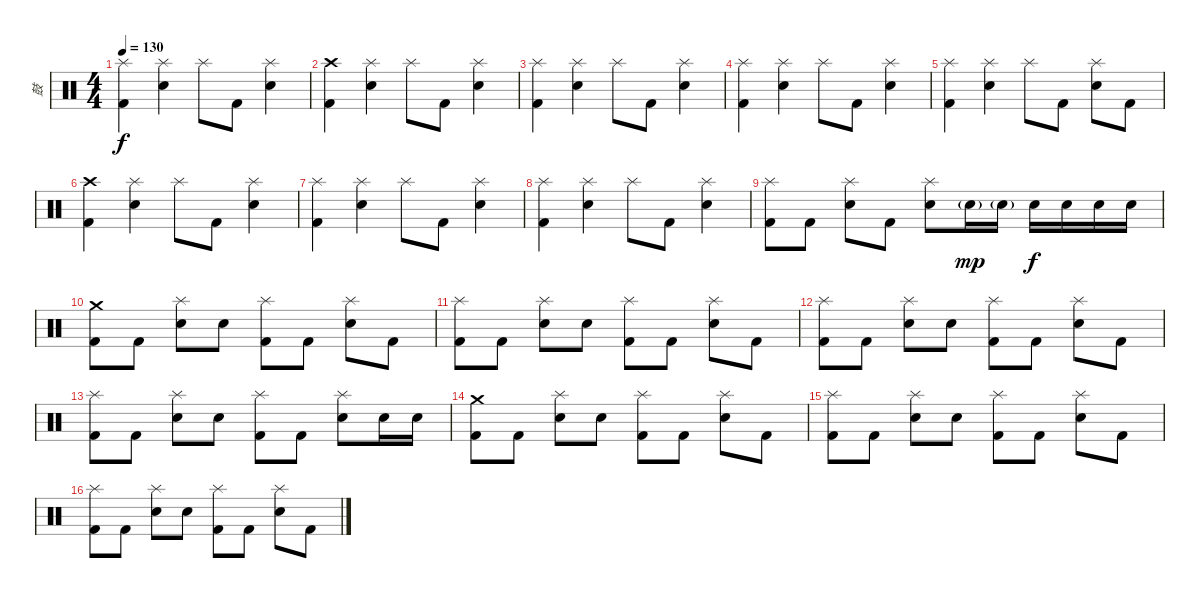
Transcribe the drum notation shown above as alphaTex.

\track ("鼓" "鼓") {instrument percussion}
\staff {score}
\articulation defaults
\ts (4 4)
\tempo 130
\clef neutral
\ks c
("Splash (hit)" "Kick (hit) 2").4{dy f} ("Splash (hit)" "Electric Snare (hit)").4 "Splash (hit)".8 "Kick (hit) 2".8 ("Splash (hit)" "Electric Snare (hit)").4 |
("Crash high (hit)" "Kick (hit) 2").4 ("Splash (hit)" "Electric Snare (hit)").4 "Splash (hit)".8 "Kick (hit) 2".8 ("Splash (hit)" "Electric Snare (hit)").4 |
("Splash (hit)" "Kick (hit) 2").4 ("Splash (hit)" "Electric Snare (hit)").4 "Splash (hit)".8 "Kick (hit) 2".8 ("Splash (hit)" "Electric Snare (hit)").4 |
("Splash (hit)" "Kick (hit) 2").4 ("Splash (hit)" "Electric Snare (hit)").4 "Splash (hit)".8 "Kick (hit) 2".8 ("Splash (hit)" "Electric Snare (hit)").4 |
("Splash (hit)" "Kick (hit) 2").4 ("Splash (hit)" "Electric Snare (hit)").4 "Splash (hit)".8 "Kick (hit) 2".8 ("Splash (hit)" "Electric Snare (hit)").8 "Kick (hit) 2".8 |
("Crash high (hit)" "Kick (hit) 2").4 ("Splash (hit)" "Electric Snare (hit)").4 "Splash (hit)".8 "Kick (hit) 2".8 ("Splash (hit)" "Electric Snare (hit)").4 |
("Splash (hit)" "Kick (hit) 2").4 ("Splash (hit)" "Electric Snare (hit)").4 "Splash (hit)".8 "Kick (hit) 2".8 ("Splash (hit)" "Electric Snare (hit)").4 |
("Splash (hit)" "Kick (hit) 2").4 ("Splash (hit)" "Electric Snare (hit)").4 "Splash (hit)".8 "Kick (hit) 2".8 ("Splash (hit)" "Electric Snare (hit)").4 |
("Splash (hit)" "Kick (hit) 2").8 "Kick (hit) 2".8 ("Splash (hit)" "Electric Snare (hit)").8 "Kick (hit) 2".8 ("Splash (hit)" "Electric Snare (hit)").8 "Electric Snare (hit)"{g}.16{dy mp} "Electric Snare (hit)"{g}.16 "Electric Snare (hit)".16{dy f} "Electric Snare (hit)".16 "Electric Snare (hit)".16 "Electric Snare (hit)".16 |
("Crash medium (hit)" "Kick (hit) 2").8 "Kick (hit) 2".8 ("Splash (hit)" "Electric Snare (hit)").8 "Electric Snare (hit)".8 ("Splash (hit)" "Kick (hit) 2").8 "Kick (hit) 2".8 ("Splash (hit)" "Electric Snare (hit)").8 "Kick (hit) 2".8 |
("Splash (hit)" "Kick (hit) 2").8 "Kick (hit) 2".8 ("Splash (hit)" "Electric Snare (hit)").8 "Electric Snare (hit)".8 ("Splash (hit)" "Kick (hit) 2").8 "Kick (hit) 2".8 ("Splash (hit)" "Electric Snare (hit)").8 "Kick (hit) 2".8 |
("Splash (hit)" "Kick (hit) 2").8 "Kick (hit) 2".8 ("Splash (hit)" "Electric Snare (hit)").8 "Electric Snare (hit)".8 ("Splash (hit)" "Kick (hit) 2").8 "Kick (hit) 2".8 ("Splash (hit)" "Electric Snare (hit)").8 "Kick (hit) 2".8 |
("Splash (hit)" "Kick (hit) 2").8 "Kick (hit) 2".8 ("Splash (hit)" "Electric Snare (hit)").8 "Electric Snare (hit)".8 ("Splash (hit)" "Kick (hit) 2").8 "Kick (hit) 2".8 ("Splash (hit)" "Electric Snare (hit)").8 "Electric Snare (hit)".16 "Electric Snare (hit)".16 |
("Crash medium (hit)" "Kick (hit) 2").8 "Kick (hit) 2".8 ("Splash (hit)" "Electric Snare (hit)").8 "Electric Snare (hit)".8 ("Splash (hit)" "Kick (hit) 2").8 "Kick (hit) 2".8 ("Splash (hit)" "Electric Snare (hit)").8 "Kick (hit) 2".8 |
("Splash (hit)" "Kick (hit) 2").8 "Kick (hit) 2".8 ("Splash (hit)" "Electric Snare (hit)").8 "Electric Snare (hit)".8 ("Splash (hit)" "Kick (hit) 2").8 "Kick (hit) 2".8 ("Splash (hit)" "Electric Snare (hit)").8 "Kick (hit) 2".8 |
("Splash (hit)" "Kick (hit) 2").8 "Kick (hit) 2".8 ("Splash (hit)" "Electric Snare (hit)").8 "Electric Snare (hit)".8 ("Splash (hit)" "Kick (hit) 2").8 "Kick (hit) 2".8 ("Splash (hit)" "Electric Snare (hit)").8 "Kick (hit) 2".8
